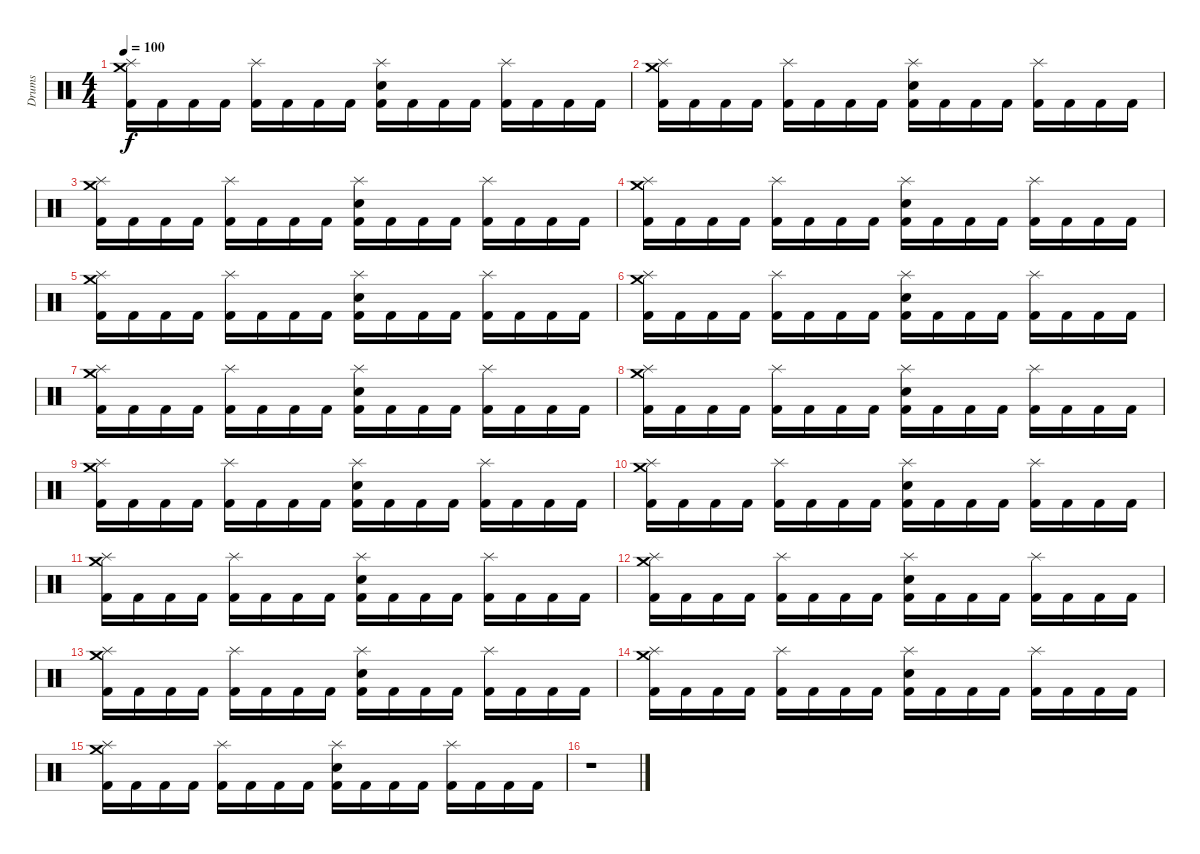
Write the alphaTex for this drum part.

\track ("Drums" "Drums") {instrument percussion}
\staff {score}
\articulation defaults
\ts (4 4)
\tempo 100
\clef neutral
\ks c
("Splash (hit)" "Crash medium (hit)" "Kick (hit) 2").16{dy f} "Kick (hit) 2".16 "Kick (hit) 2".16 "Kick (hit) 2".16 ("Splash (hit)" "Kick (hit) 2").16 "Kick (hit) 2".16 "Kick (hit) 2".16 "Kick (hit) 2".16 ("Splash (hit)" "Snare (hit) 2" "Kick (hit) 2").16 "Kick (hit) 2".16 "Kick (hit) 2".16 "Kick (hit) 2".16 ("Splash (hit)" "Kick (hit) 2").16 "Kick (hit) 2".16 "Kick (hit) 2".16 "Kick (hit) 2".16 |
("Splash (hit)" "Crash medium (hit)" "Kick (hit) 2").16 "Kick (hit) 2".16 "Kick (hit) 2".16 "Kick (hit) 2".16 ("Splash (hit)" "Kick (hit) 2").16 "Kick (hit) 2".16 "Kick (hit) 2".16 "Kick (hit) 2".16 ("Splash (hit)" "Snare (hit) 2" "Kick (hit) 2").16 "Kick (hit) 2".16 "Kick (hit) 2".16 "Kick (hit) 2".16 ("Splash (hit)" "Kick (hit) 2").16 "Kick (hit) 2".16 "Kick (hit) 2".16 "Kick (hit) 2".16 |
("Splash (hit)" "Crash medium (hit)" "Kick (hit) 2").16 "Kick (hit) 2".16 "Kick (hit) 2".16 "Kick (hit) 2".16 ("Splash (hit)" "Kick (hit) 2").16 "Kick (hit) 2".16 "Kick (hit) 2".16 "Kick (hit) 2".16 ("Splash (hit)" "Snare (hit) 2" "Kick (hit) 2").16 "Kick (hit) 2".16 "Kick (hit) 2".16 "Kick (hit) 2".16 ("Splash (hit)" "Kick (hit) 2").16 "Kick (hit) 2".16 "Kick (hit) 2".16 "Kick (hit) 2".16 |
("Splash (hit)" "Crash medium (hit)" "Kick (hit) 2").16 "Kick (hit) 2".16 "Kick (hit) 2".16 "Kick (hit) 2".16 ("Splash (hit)" "Kick (hit) 2").16 "Kick (hit) 2".16 "Kick (hit) 2".16 "Kick (hit) 2".16 ("Splash (hit)" "Snare (hit) 2" "Kick (hit) 2").16 "Kick (hit) 2".16 "Kick (hit) 2".16 "Kick (hit) 2".16 ("Splash (hit)" "Kick (hit) 2").16 "Kick (hit) 2".16 "Kick (hit) 2".16 "Kick (hit) 2".16 |
("Splash (hit)" "Crash medium (hit)" "Kick (hit) 2").16 "Kick (hit) 2".16 "Kick (hit) 2".16 "Kick (hit) 2".16 ("Splash (hit)" "Kick (hit) 2").16 "Kick (hit) 2".16 "Kick (hit) 2".16 "Kick (hit) 2".16 ("Splash (hit)" "Snare (hit) 2" "Kick (hit) 2").16 "Kick (hit) 2".16 "Kick (hit) 2".16 "Kick (hit) 2".16 ("Splash (hit)" "Kick (hit) 2").16 "Kick (hit) 2".16 "Kick (hit) 2".16 "Kick (hit) 2".16 |
("Splash (hit)" "Crash medium (hit)" "Kick (hit) 2").16 "Kick (hit) 2".16 "Kick (hit) 2".16 "Kick (hit) 2".16 ("Splash (hit)" "Kick (hit) 2").16 "Kick (hit) 2".16 "Kick (hit) 2".16 "Kick (hit) 2".16 ("Splash (hit)" "Snare (hit) 2" "Kick (hit) 2").16 "Kick (hit) 2".16 "Kick (hit) 2".16 "Kick (hit) 2".16 ("Splash (hit)" "Kick (hit) 2").16 "Kick (hit) 2".16 "Kick (hit) 2".16 "Kick (hit) 2".16 |
("Splash (hit)" "Crash medium (hit)" "Kick (hit) 2").16 "Kick (hit) 2".16 "Kick (hit) 2".16 "Kick (hit) 2".16 ("Splash (hit)" "Kick (hit) 2").16 "Kick (hit) 2".16 "Kick (hit) 2".16 "Kick (hit) 2".16 ("Splash (hit)" "Snare (hit) 2" "Kick (hit) 2").16 "Kick (hit) 2".16 "Kick (hit) 2".16 "Kick (hit) 2".16 ("Splash (hit)" "Kick (hit) 2").16 "Kick (hit) 2".16 "Kick (hit) 2".16 "Kick (hit) 2".16 |
("Splash (hit)" "Crash medium (hit)" "Kick (hit) 2").16 "Kick (hit) 2".16 "Kick (hit) 2".16 "Kick (hit) 2".16 ("Splash (hit)" "Kick (hit) 2").16 "Kick (hit) 2".16 "Kick (hit) 2".16 "Kick (hit) 2".16 ("Splash (hit)" "Snare (hit) 2" "Kick (hit) 2").16 "Kick (hit) 2".16 "Kick (hit) 2".16 "Kick (hit) 2".16 ("Splash (hit)" "Kick (hit) 2").16 "Kick (hit) 2".16 "Kick (hit) 2".16 "Kick (hit) 2".16 |
("Splash (hit)" "Crash medium (hit)" "Kick (hit) 2").16 "Kick (hit) 2".16 "Kick (hit) 2".16 "Kick (hit) 2".16 ("Splash (hit)" "Kick (hit) 2").16 "Kick (hit) 2".16 "Kick (hit) 2".16 "Kick (hit) 2".16 ("Splash (hit)" "Snare (hit) 2" "Kick (hit) 2").16 "Kick (hit) 2".16 "Kick (hit) 2".16 "Kick (hit) 2".16 ("Splash (hit)" "Kick (hit) 2").16 "Kick (hit) 2".16 "Kick (hit) 2".16 "Kick (hit) 2".16 |
("Splash (hit)" "Crash medium (hit)" "Kick (hit) 2").16 "Kick (hit) 2".16 "Kick (hit) 2".16 "Kick (hit) 2".16 ("Splash (hit)" "Kick (hit) 2").16 "Kick (hit) 2".16 "Kick (hit) 2".16 "Kick (hit) 2".16 ("Splash (hit)" "Snare (hit) 2" "Kick (hit) 2").16 "Kick (hit) 2".16 "Kick (hit) 2".16 "Kick (hit) 2".16 ("Splash (hit)" "Kick (hit) 2").16 "Kick (hit) 2".16 "Kick (hit) 2".16 "Kick (hit) 2".16 |
("Splash (hit)" "Crash medium (hit)" "Kick (hit) 2").16 "Kick (hit) 2".16 "Kick (hit) 2".16 "Kick (hit) 2".16 ("Splash (hit)" "Kick (hit) 2").16 "Kick (hit) 2".16 "Kick (hit) 2".16 "Kick (hit) 2".16 ("Splash (hit)" "Snare (hit) 2" "Kick (hit) 2").16 "Kick (hit) 2".16 "Kick (hit) 2".16 "Kick (hit) 2".16 ("Splash (hit)" "Kick (hit) 2").16 "Kick (hit) 2".16 "Kick (hit) 2".16 "Kick (hit) 2".16 |
("Splash (hit)" "Crash medium (hit)" "Kick (hit) 2").16 "Kick (hit) 2".16 "Kick (hit) 2".16 "Kick (hit) 2".16 ("Splash (hit)" "Kick (hit) 2").16 "Kick (hit) 2".16 "Kick (hit) 2".16 "Kick (hit) 2".16 ("Splash (hit)" "Snare (hit) 2" "Kick (hit) 2").16 "Kick (hit) 2".16 "Kick (hit) 2".16 "Kick (hit) 2".16 ("Splash (hit)" "Kick (hit) 2").16 "Kick (hit) 2".16 "Kick (hit) 2".16 "Kick (hit) 2".16 |
("Splash (hit)" "Crash medium (hit)" "Kick (hit) 2").16 "Kick (hit) 2".16 "Kick (hit) 2".16 "Kick (hit) 2".16 ("Splash (hit)" "Kick (hit) 2").16 "Kick (hit) 2".16 "Kick (hit) 2".16 "Kick (hit) 2".16 ("Splash (hit)" "Snare (hit) 2" "Kick (hit) 2").16 "Kick (hit) 2".16 "Kick (hit) 2".16 "Kick (hit) 2".16 ("Splash (hit)" "Kick (hit) 2").16 "Kick (hit) 2".16 "Kick (hit) 2".16 "Kick (hit) 2".16 |
("Splash (hit)" "Crash medium (hit)" "Kick (hit) 2").16 "Kick (hit) 2".16 "Kick (hit) 2".16 "Kick (hit) 2".16 ("Splash (hit)" "Kick (hit) 2").16 "Kick (hit) 2".16 "Kick (hit) 2".16 "Kick (hit) 2".16 ("Splash (hit)" "Snare (hit) 2" "Kick (hit) 2").16 "Kick (hit) 2".16 "Kick (hit) 2".16 "Kick (hit) 2".16 ("Splash (hit)" "Kick (hit) 2").16 "Kick (hit) 2".16 "Kick (hit) 2".16 "Kick (hit) 2".16 |
("Splash (hit)" "Crash medium (hit)" "Kick (hit) 2").16 "Kick (hit) 2".16 "Kick (hit) 2".16 "Kick (hit) 2".16 ("Splash (hit)" "Kick (hit) 2").16 "Kick (hit) 2".16 "Kick (hit) 2".16 "Kick (hit) 2".16 ("Splash (hit)" "Snare (hit) 2" "Kick (hit) 2").16 "Kick (hit) 2".16 "Kick (hit) 2".16 "Kick (hit) 2".16 ("Splash (hit)" "Kick (hit) 2").16 "Kick (hit) 2".16 "Kick (hit) 2".16 "Kick (hit) 2".16 |
r.1
